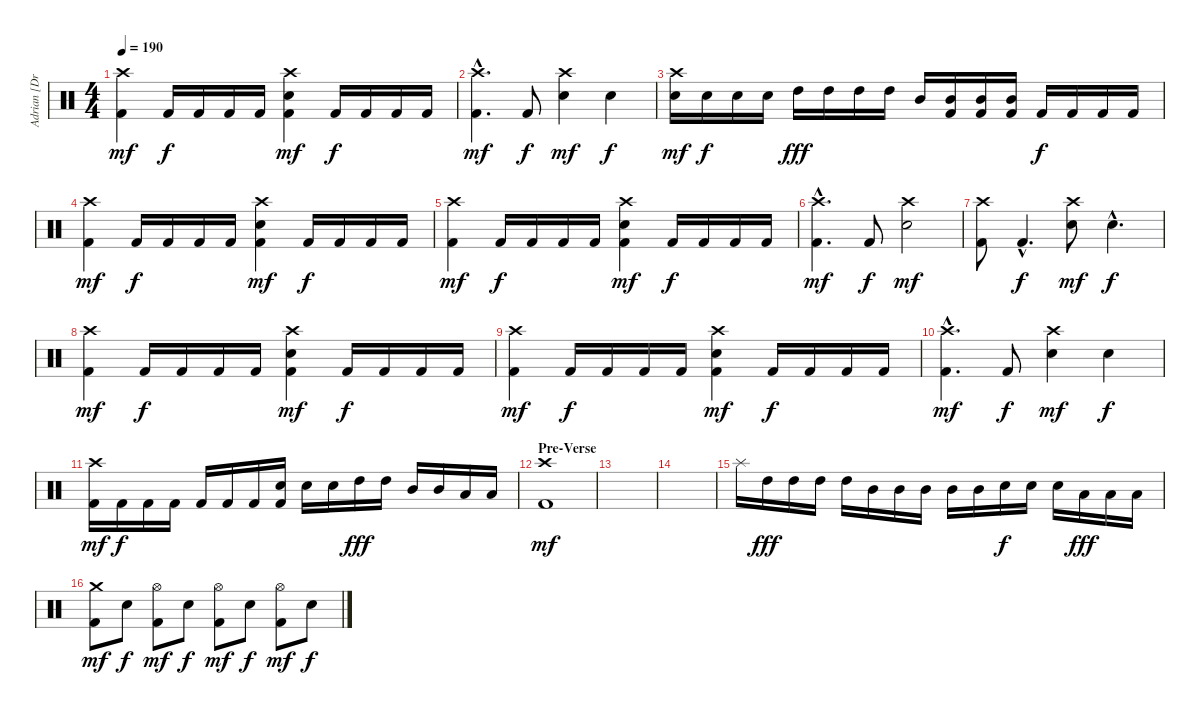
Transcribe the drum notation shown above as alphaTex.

\track ("Adrian [Drums]" "Adrian [Dr") {instrument percussion}
\staff {score}
\articulation defaults
\ts (4 4)
\tempo 190
\clef neutral
\ks c
("Crash high (hit)" "Kick (hit) 2").4{dy mf} "Kick (hit) 2".16{dy f} "Kick (hit) 2".16 "Kick (hit) 2".16 "Kick (hit) 2".16 ("Crash high (hit)" "Electric Snare (hit)" "Kick (hit) 2").4{dy mf} "Kick (hit) 2".16{dy f} "Kick (hit) 2".16 "Kick (hit) 2".16 "Kick (hit) 2".16 |
("Crash high (hit)"{hac} "Kick (hit) 2"{hac}).4{d dy mf} "Kick (hit) 2".8{dy f} ("Crash high (hit)" "Electric Snare (hit)").4{dy mf} "Electric Snare (hit)".4{dy f} |
("Crash high (hit)" "Electric Snare (hit)").16{dy mf} "Electric Snare (hit)".16{dy f} "Electric Snare (hit)".16 "Electric Snare (hit)".16 "High Tom (hit)".16{dy fff} "High Tom (hit)".16 "High Tom (hit)".16 "High Tom (hit)".16 "Mid Tom (hit)".16 ("Mid Tom (hit)" "Kick (hit) 2").16 ("Mid Tom (hit)" "Kick (hit) 2").16 ("Mid Tom (hit)" "Kick (hit) 2").16 "Kick (hit) 2".16{dy f} "Kick (hit) 2".16 "Kick (hit) 2".16 "Kick (hit) 2".16 |
("Crash high (hit)" "Kick (hit) 2").4{dy mf} "Kick (hit) 2".16{dy f} "Kick (hit) 2".16 "Kick (hit) 2".16 "Kick (hit) 2".16 ("Crash high (hit)" "Electric Snare (hit)" "Kick (hit) 2").4{dy mf} "Kick (hit) 2".16{dy f} "Kick (hit) 2".16 "Kick (hit) 2".16 "Kick (hit) 2".16 |
("Crash high (hit)" "Kick (hit) 2").4{dy mf} "Kick (hit) 2".16{dy f} "Kick (hit) 2".16 "Kick (hit) 2".16 "Kick (hit) 2".16 ("Crash high (hit)" "Electric Snare (hit)" "Kick (hit) 2").4{dy mf} "Kick (hit) 2".16{dy f} "Kick (hit) 2".16 "Kick (hit) 2".16 "Kick (hit) 2".16 |
("Crash high (hit)"{hac} "Kick (hit) 2"{hac}).4{d dy mf} "Kick (hit) 2".8{dy f} ("Crash high (hit)" "Electric Snare (hit)").2{dy mf} |
("Crash high (hit)" "Kick (hit) 2").8 "Kick (hit) 2"{hac}.4{d dy f} ("Crash high (hit)" "Electric Snare (hit)").8{dy mf} "Electric Snare (hit)"{hac}.4{d dy f} |
("Crash high (hit)" "Kick (hit) 2").4{dy mf} "Kick (hit) 2".16{dy f} "Kick (hit) 2".16 "Kick (hit) 2".16 "Kick (hit) 2".16 ("Crash high (hit)" "Electric Snare (hit)" "Kick (hit) 2").4{dy mf} "Kick (hit) 2".16{dy f} "Kick (hit) 2".16 "Kick (hit) 2".16 "Kick (hit) 2".16 |
("Crash high (hit)" "Kick (hit) 2").4{dy mf} "Kick (hit) 2".16{dy f} "Kick (hit) 2".16 "Kick (hit) 2".16 "Kick (hit) 2".16 ("Crash high (hit)" "Electric Snare (hit)" "Kick (hit) 2").4{dy mf} "Kick (hit) 2".16{dy f} "Kick (hit) 2".16 "Kick (hit) 2".16 "Kick (hit) 2".16 |
("Crash high (hit)"{hac} "Kick (hit) 2"{hac}).4{d dy mf} "Kick (hit) 2".8{dy f} ("Crash high (hit)" "Electric Snare (hit)").4{dy mf} "Electric Snare (hit)".4{dy f} |
("Crash high (hit)" "Kick (hit) 2").16{dy mf} "Kick (hit) 2".16{dy f} "Kick (hit) 2".16 "Kick (hit) 2".16 "Kick (hit) 2".16 "Kick (hit) 2".16 "Kick (hit) 2".16 ("Electric Snare (hit)" "Kick (hit) 2").16 "Electric Snare (hit)".16 "Electric Snare (hit)".16 "High Tom (hit)".16{dy fff} "High Tom (hit)".16 "Mid Tom (hit)".16 "Mid Tom (hit)".16 "Low Tom (hit)".16 "Low Tom (hit)".16 |
\section ("" "Pre-Verse")
("Crash high (hit)" "Kick (hit) 2").1{dy mf} |
|
|
"Splash (hit)".16 "High Tom (hit)".16{dy fff} "High Tom (hit)".16 "High Tom (hit)".16 "High Tom (hit)".16 "Mid Tom (hit)".16 "Mid Tom (hit)".16 "Mid Tom (hit)".16 "Mid Tom (hit)".16 "Mid Tom (hit)".16 "Electric Snare (hit)".16{dy f} "Electric Snare (hit)".16 "Electric Snare (hit)".16 "Low Tom (hit)".16{dy fff} "Low Tom (hit)".16 "Low Tom (hit)".16 |
("Crash medium (hit)" "Kick (hit) 2").8{dy mf} "Electric Snare (hit)".8{dy f} ("Hi-Hat (open)" "Kick (hit) 2").8{dy mf} "Electric Snare (hit)".8{dy f} ("Hi-Hat (open)" "Kick (hit) 2").8{dy mf} "Electric Snare (hit)".8{dy f} ("Hi-Hat (open)" "Kick (hit) 2").8{dy mf} "Electric Snare (hit)".8{dy f}
